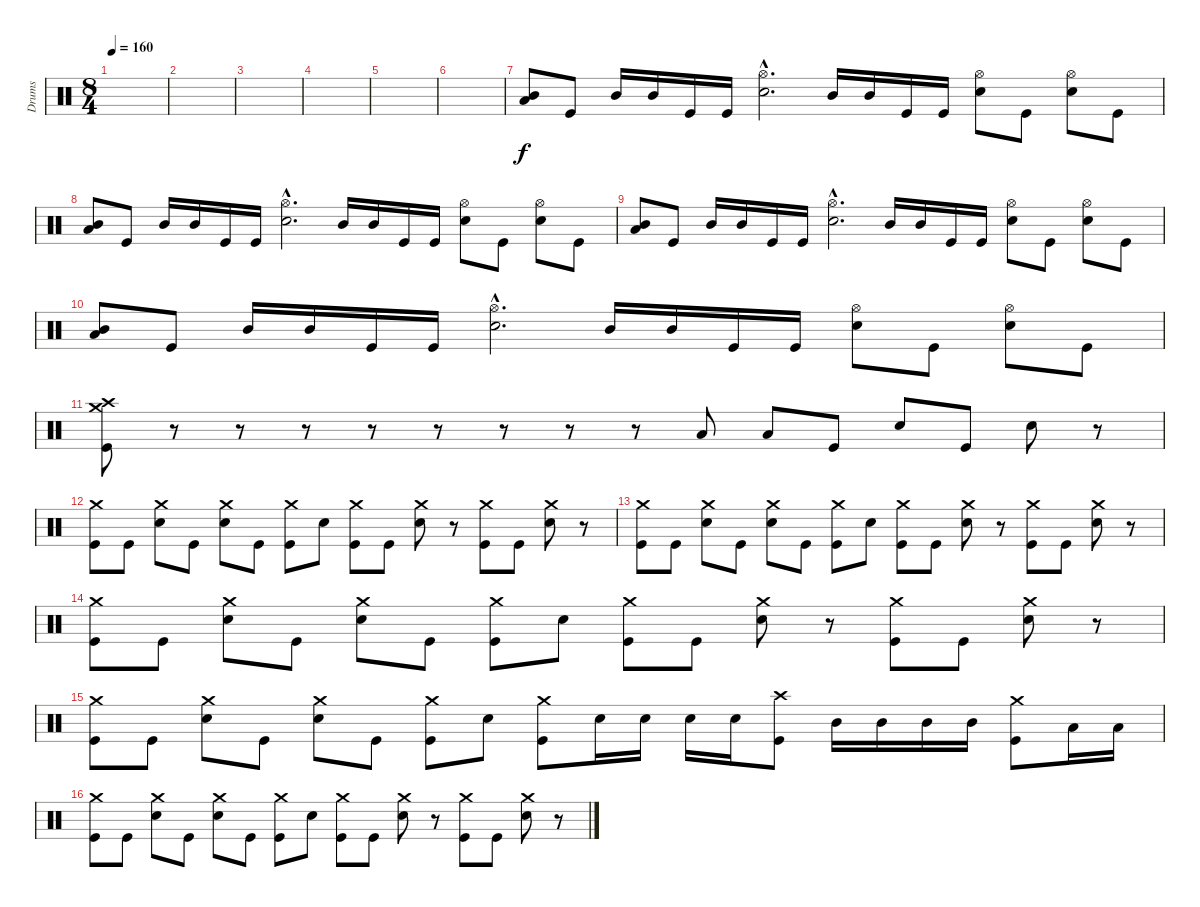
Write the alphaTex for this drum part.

\track ("Drums" "Drums") {instrument percussion}
\staff {score}
\articulation defaults
\ts (8 4)
\tempo 160
\clef neutral
\ks c
|
|
|
|
|
|
("Low Floor Tom (hit)" "Mid Tom (hit)").8 "Kick (hit)".8 "Mid Tom (hit)".16 "Mid Tom (hit)".16 "Kick (hit)".16 "Kick (hit)".16 ("Hi-Hat (open)"{hac} "Snare (hit) 2"{hac}).2{d} "Mid Tom (hit)".16 "Mid Tom (hit)".16 "Kick (hit)".16 "Kick (hit)".16 ("Hi-Hat (open)" "Snare (hit) 2").8 "Kick (hit)".8 ("Hi-Hat (open)" "Snare (hit) 2").8 "Kick (hit)".8 |
("Low Floor Tom (hit)" "Mid Tom (hit)").8 "Kick (hit)".8 "Mid Tom (hit)".16 "Mid Tom (hit)".16 "Kick (hit)".16 "Kick (hit)".16 ("Hi-Hat (open)"{hac} "Snare (hit) 2"{hac}).2{d} "Mid Tom (hit)".16 "Mid Tom (hit)".16 "Kick (hit)".16 "Kick (hit)".16 ("Hi-Hat (open)" "Snare (hit) 2").8 "Kick (hit)".8 ("Hi-Hat (open)" "Snare (hit) 2").8 "Kick (hit)".8 |
("Low Floor Tom (hit)" "Mid Tom (hit)").8 "Kick (hit)".8 "Mid Tom (hit)".16 "Mid Tom (hit)".16 "Kick (hit)".16 "Kick (hit)".16 ("Hi-Hat (open)"{hac} "Snare (hit) 2"{hac}).2{d} "Mid Tom (hit)".16 "Mid Tom (hit)".16 "Kick (hit)".16 "Kick (hit)".16 ("Hi-Hat (open)" "Snare (hit) 2").8 "Kick (hit)".8 ("Hi-Hat (open)" "Snare (hit) 2").8 "Kick (hit)".8 |
("Low Floor Tom (hit)" "Mid Tom (hit)").8 "Kick (hit)".8 "Mid Tom (hit)".16 "Mid Tom (hit)".16 "Kick (hit)".16 "Kick (hit)".16 ("Hi-Hat (open)"{hac} "Snare (hit) 2"{hac}).2{d} "Mid Tom (hit)".16 "Mid Tom (hit)".16 "Kick (hit)".16 "Kick (hit)".16 ("Hi-Hat (open)" "Snare (hit) 2").8 "Kick (hit)".8 ("Hi-Hat (open)" "Snare (hit) 2").8 "Kick (hit)".8 |
("Crash medium (hit)" "Kick (hit)" "Crash high (hit)").8 r.8 r.8 r.8 r.8 r.8 r.8 r.8 r.8 "Low Floor Tom (hit)".8 "Low Floor Tom (hit)".8 "Kick (hit)".8 "Snare (hit) 2".8 "Kick (hit)".8 "Snare (hit) 2".8 r.8 |
("Crash medium (hit)" "Kick (hit)").8 "Kick (hit)".8 ("Crash medium (hit)" "Snare (hit) 2").8 "Kick (hit)".8 ("Crash medium (hit)" "Snare (hit) 2").8 "Kick (hit)".8 ("Crash medium (hit)" "Kick (hit)").8 "Snare (hit) 2".8 ("Crash medium (hit)" "Kick (hit)").8 "Kick (hit)".8 ("Crash medium (hit)" "Snare (hit) 2").8 r.8 ("Crash medium (hit)" "Kick (hit)").8 "Kick (hit)".8 ("Crash medium (hit)" "Snare (hit) 2").8 r.8 |
("Crash medium (hit)" "Kick (hit)").8 "Kick (hit)".8 ("Crash medium (hit)" "Snare (hit) 2").8 "Kick (hit)".8 ("Crash medium (hit)" "Snare (hit) 2").8 "Kick (hit)".8 ("Crash medium (hit)" "Kick (hit)").8 "Snare (hit) 2".8 ("Crash medium (hit)" "Kick (hit)").8 "Kick (hit)".8 ("Crash medium (hit)" "Snare (hit) 2").8 r.8 ("Crash medium (hit)" "Kick (hit)").8 "Kick (hit)".8 ("Crash medium (hit)" "Snare (hit) 2").8 r.8 |
("Crash medium (hit)" "Kick (hit)").8 "Kick (hit)".8 ("Crash medium (hit)" "Snare (hit) 2").8 "Kick (hit)".8 ("Crash medium (hit)" "Snare (hit) 2").8 "Kick (hit)".8 ("Crash medium (hit)" "Kick (hit)").8 "Snare (hit) 2".8 ("Crash medium (hit)" "Kick (hit)").8 "Kick (hit)".8 ("Crash medium (hit)" "Snare (hit) 2").8 r.8 ("Crash medium (hit)" "Kick (hit)").8 "Kick (hit)".8 ("Crash medium (hit)" "Snare (hit) 2").8 r.8 |
("Crash medium (hit)" "Kick (hit)").8 "Kick (hit)".8 ("Crash medium (hit)" "Snare (hit) 2").8 "Kick (hit)".8 ("Crash medium (hit)" "Snare (hit) 2").8 "Kick (hit)".8 ("Crash medium (hit)" "Kick (hit)").8 "Snare (hit) 2".8 ("Crash medium (hit)" "Kick (hit)").8 "Snare (hit) 2".16 "Snare (hit) 2".16 "Snare (hit) 2".16 "Snare (hit) 2".16 ("Crash high (hit)" "Kick (hit)").8 "Mid Tom (hit)".16 "Mid Tom (hit)".16 "Mid Tom (hit)".16 "Mid Tom (hit)".16 ("Crash medium (hit)" "Kick (hit)").8 "Low Floor Tom (hit)".16 "Low Floor Tom (hit)".16 |
("Crash medium (hit)" "Kick (hit)").8 "Kick (hit)".8 ("Crash medium (hit)" "Snare (hit) 2").8 "Kick (hit)".8 ("Crash medium (hit)" "Snare (hit) 2").8 "Kick (hit)".8 ("Crash medium (hit)" "Kick (hit)").8 "Snare (hit) 2".8 ("Crash medium (hit)" "Kick (hit)").8 "Kick (hit)".8 ("Crash medium (hit)" "Snare (hit) 2").8 r.8 ("Crash medium (hit)" "Kick (hit)").8 "Kick (hit)".8 ("Crash medium (hit)" "Snare (hit) 2").8 r.8
